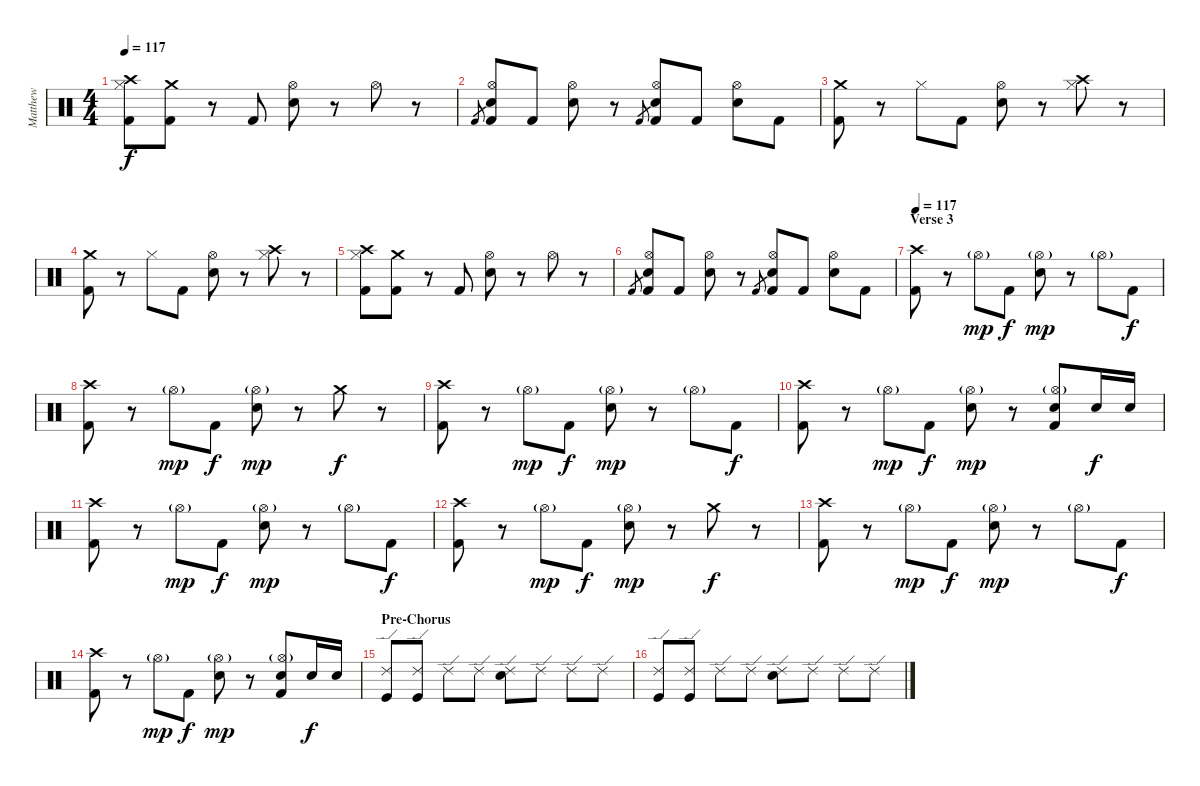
\track ("Matthew" "Matthew") {instrument percussion}
\staff {score}
\articulation defaults
\ts (4 4)
\tempo 117
\clef neutral
\ks c
("Crash high (hit)" "Hi-Hat (closed)" "Kick (hit) 2").8{dy f} ("Crash medium (hit)" "Kick (hit) 2").8 r.8 "Kick (hit) 2".8 ("Hi-Hat (open)" "Electric Snare (hit)").8 r.8 "Hi-Hat (open)".8 r.8 |
"Kick (hit) 2".8{gr} ("Hi-Hat (open)" "Electric Snare (hit)" "Kick (hit) 2").8 "Kick (hit) 2".8 ("Hi-Hat (open)" "Electric Snare (hit)").8 r.8 "Kick (hit) 2".8{gr} ("Hi-Hat (open)" "Electric Snare (hit)" "Kick (hit) 2").8 "Kick (hit) 2".8 ("Hi-Hat (open)" "Electric Snare (hit)").8 "Kick (hit) 2".8 |
("Crash medium (hit)" "Kick (hit) 2").8 r.8 "Hi-Hat (closed)".8 "Kick (hit) 2".8 ("Hi-Hat (open)" "Electric Snare (hit)").8 r.8 ("Crash high (hit)" "Hi-Hat (closed)").8 r.8 |
("Crash medium (hit)" "Kick (hit) 2").8 r.8 "Hi-Hat (closed)".8 "Kick (hit) 2".8 ("Hi-Hat (open)" "Electric Snare (hit)").8 r.8 ("Crash high (hit)" "Hi-Hat (closed)").8 r.8 |
("Crash high (hit)" "Hi-Hat (closed)" "Kick (hit) 2").8 ("Crash medium (hit)" "Kick (hit) 2").8 r.8 "Kick (hit) 2".8 ("Hi-Hat (open)" "Electric Snare (hit)").8 r.8 "Hi-Hat (open)".8 r.8 |
"Kick (hit) 2".8{gr} ("Hi-Hat (open)" "Electric Snare (hit)" "Kick (hit) 2").8 "Kick (hit) 2".8 ("Hi-Hat (open)" "Electric Snare (hit)").8 r.8 "Kick (hit) 2".8{gr} ("Hi-Hat (open)" "Electric Snare (hit)" "Kick (hit) 2").8 "Kick (hit) 2".8 ("Hi-Hat (open)" "Electric Snare (hit)").8 "Kick (hit) 2".8 |
\section ("" "Verse 3")
\tempo 117
("Crash high (hit)" "Kick (hit) 2").8 r.8 "Hi-Hat (open)"{g}.8{dy mp} "Kick (hit) 2".8{dy f} ("Hi-Hat (open)"{g} "Electric Snare (hit)").8{dy mp} r.8 "Hi-Hat (open)"{g}.8 "Kick (hit) 2".8{dy f} |
("Crash high (hit)" "Kick (hit) 2").8 r.8 "Hi-Hat (open)"{g}.8{dy mp} "Kick (hit) 2".8{dy f} ("Hi-Hat (open)"{g} "Electric Snare (hit)").8{dy mp} r.8 "Crash medium (hit)".8{dy f} r.8 |
("Crash high (hit)" "Kick (hit) 2").8 r.8 "Hi-Hat (open)"{g}.8{dy mp} "Kick (hit) 2".8{dy f} ("Hi-Hat (open)"{g} "Electric Snare (hit)").8{dy mp} r.8 "Hi-Hat (open)"{g}.8 "Kick (hit) 2".8{dy f} |
("Crash high (hit)" "Kick (hit) 2").8 r.8 "Hi-Hat (open)"{g}.8{dy mp} "Kick (hit) 2".8{dy f} ("Hi-Hat (open)"{g} "Electric Snare (hit)").8{dy mp} r.8 ("Hi-Hat (open)"{g} "Electric Snare (hit)" "Kick (hit) 2").8 "Electric Snare (hit)".16{dy f} "Electric Snare (hit)".16 |
("Crash high (hit)" "Kick (hit) 2").8 r.8 "Hi-Hat (open)"{g}.8{dy mp} "Kick (hit) 2".8{dy f} ("Hi-Hat (open)"{g} "Electric Snare (hit)").8{dy mp} r.8 "Hi-Hat (open)"{g}.8 "Kick (hit) 2".8{dy f} |
("Crash high (hit)" "Kick (hit) 2").8 r.8 "Hi-Hat (open)"{g}.8{dy mp} "Kick (hit) 2".8{dy f} ("Hi-Hat (open)"{g} "Electric Snare (hit)").8{dy mp} r.8 "Crash medium (hit)".8{dy f} r.8 |
("Crash high (hit)" "Kick (hit) 2").8 r.8 "Hi-Hat (open)"{g}.8{dy mp} "Kick (hit) 2".8{dy f} ("Hi-Hat (open)"{g} "Electric Snare (hit)").8{dy mp} r.8 "Hi-Hat (open)"{g}.8 "Kick (hit) 2".8{dy f} |
("Crash high (hit)" "Kick (hit) 2").8 r.8 "Hi-Hat (open)"{g}.8{dy mp} "Kick (hit) 2".8{dy f} ("Hi-Hat (open)"{g} "Electric Snare (hit)").8{dy mp} r.8 ("Hi-Hat (open)"{g} "Electric Snare (hit)" "Kick (hit) 2").8 "Electric Snare (hit)".16{dy f} "Electric Snare (hit)".16 |
\section ("" "Pre-Chorus")
("Ride (edge) 2" "Kick (hit)").8 ("Ride (edge) 2" "Kick (hit)").8 "Ride (edge) 2".8 "Ride (edge) 2".8 ("Ride (edge) 2" "Electric Snare (hit)").8 "Ride (edge) 2".8 "Ride (edge) 2".8 "Ride (edge) 2".8 |
("Ride (edge) 2" "Kick (hit)").8 ("Ride (edge) 2" "Kick (hit)").8 "Ride (edge) 2".8 "Ride (edge) 2".8 ("Ride (edge) 2" "Electric Snare (hit)").8 "Ride (edge) 2".8 "Ride (edge) 2".8 "Ride (edge) 2".8
